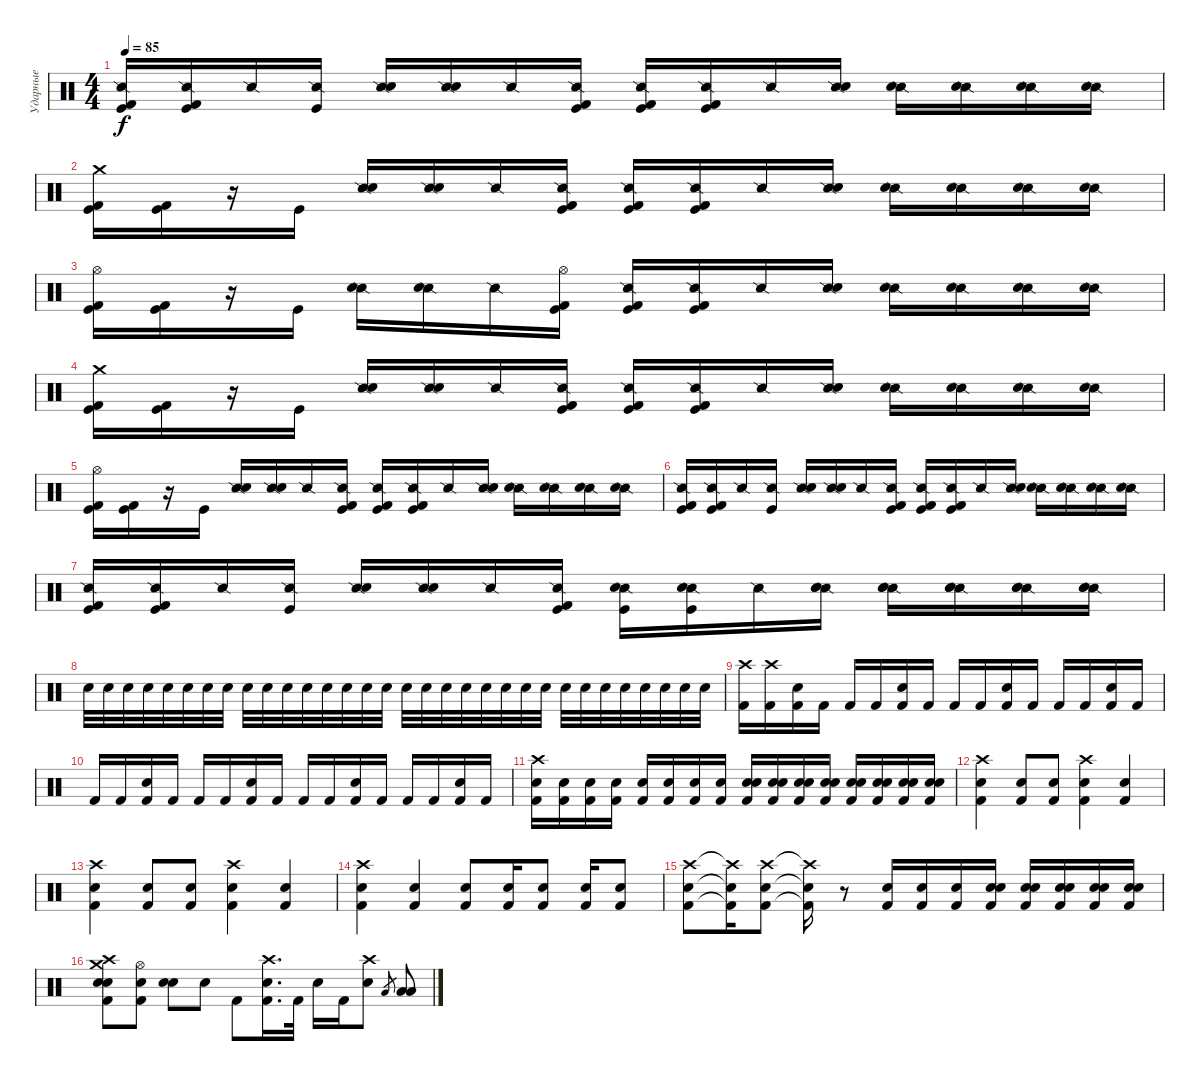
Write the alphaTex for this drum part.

\track ("Ударные" "Ударные") {instrument percussion}
\staff {score}
\articulation defaults
\ts (4 4)
\tempo 85
\clef neutral
\ks c
("Snare (side stick) 2" "Kick (hit)" "Kick (hit) 2").16{dy f} ("Snare (side stick) 2" "Kick (hit)" "Kick (hit) 2").16 "Snare (side stick) 2".16 ("Snare (side stick) 2" "Kick (hit)").16 ("Snare (side stick) 2" "Electric Snare (hit)").16 ("Snare (side stick) 2" "Electric Snare (hit)").16 "Snare (side stick) 2".16 ("Snare (side stick) 2" "Kick (hit) 2" "Kick (hit)").16 ("Snare (side stick) 2" "Kick (hit) 2" "Kick (hit)").16 ("Snare (side stick) 2" "Kick (hit) 2" "Kick (hit)").16 "Snare (side stick) 2".16 ("Snare (side stick) 2" "Electric Snare (hit)").16 ("Snare (side stick) 2" "Electric Snare (hit)").16 ("Snare (side stick) 2" "Electric Snare (hit)").16 ("Snare (side stick) 2" "Electric Snare (hit)").16 ("Snare (side stick) 2" "Electric Snare (hit)").16 |
("Crash medium (hit)" "Kick (hit)" "Kick (hit) 2").16 ("Kick (hit)" "Kick (hit) 2").16 r.16 "Kick (hit)".16 ("Snare (side stick) 2" "Electric Snare (hit)").16 ("Snare (side stick) 2" "Electric Snare (hit)").16 "Snare (side stick) 2".16 ("Snare (side stick) 2" "Kick (hit) 2" "Kick (hit)").16 ("Snare (side stick) 2" "Kick (hit) 2" "Kick (hit)").16 ("Snare (side stick) 2" "Kick (hit) 2" "Kick (hit)").16 "Snare (side stick) 2".16 ("Snare (side stick) 2" "Electric Snare (hit)").16 ("Snare (side stick) 2" "Electric Snare (hit)").16 ("Snare (side stick) 2" "Electric Snare (hit)").16 ("Snare (side stick) 2" "Electric Snare (hit)").16 ("Snare (side stick) 2" "Electric Snare (hit)").16 |
("Hi-Hat (open)" "Kick (hit)" "Kick (hit) 2").16 ("Kick (hit)" "Kick (hit) 2").16 r.16 "Kick (hit)".16 ("Snare (side stick) 2" "Electric Snare (hit)").16 ("Snare (side stick) 2" "Electric Snare (hit)").16 "Snare (side stick) 2".16 ("Hi-Hat (open)" "Kick (hit) 2" "Kick (hit)").16 ("Snare (side stick) 2" "Kick (hit) 2" "Kick (hit)").16 ("Snare (side stick) 2" "Kick (hit) 2" "Kick (hit)").16 "Snare (side stick) 2".16 ("Snare (side stick) 2" "Electric Snare (hit)").16 ("Snare (side stick) 2" "Electric Snare (hit)").16 ("Snare (side stick) 2" "Electric Snare (hit)").16 ("Snare (side stick) 2" "Electric Snare (hit)").16 ("Snare (side stick) 2" "Electric Snare (hit)").16 |
("Crash medium (hit)" "Kick (hit)" "Kick (hit) 2").16 ("Kick (hit)" "Kick (hit) 2").16 r.16 "Kick (hit)".16 ("Snare (side stick) 2" "Electric Snare (hit)").16 ("Snare (side stick) 2" "Electric Snare (hit)").16 "Snare (side stick) 2".16 ("Snare (side stick) 2" "Kick (hit) 2" "Kick (hit)").16 ("Snare (side stick) 2" "Kick (hit) 2" "Kick (hit)").16 ("Snare (side stick) 2" "Kick (hit) 2" "Kick (hit)").16 "Snare (side stick) 2".16 ("Snare (side stick) 2" "Electric Snare (hit)").16 ("Snare (side stick) 2" "Electric Snare (hit)").16 ("Snare (side stick) 2" "Electric Snare (hit)").16 ("Snare (side stick) 2" "Electric Snare (hit)").16 ("Snare (side stick) 2" "Electric Snare (hit)").16 |
("Hi-Hat (open)" "Kick (hit)" "Kick (hit) 2").16 ("Kick (hit)" "Kick (hit) 2").16 r.16 "Kick (hit)".16 ("Snare (side stick) 2" "Electric Snare (hit)").16 ("Snare (side stick) 2" "Electric Snare (hit)").16 "Snare (side stick) 2".16 ("Snare (side stick) 2" "Kick (hit) 2" "Kick (hit)").16 ("Snare (side stick) 2" "Kick (hit) 2" "Kick (hit)").16 ("Snare (side stick) 2" "Kick (hit) 2" "Kick (hit)").16 "Snare (side stick) 2".16 ("Snare (side stick) 2" "Electric Snare (hit)").16 ("Snare (side stick) 2" "Electric Snare (hit)").16 ("Snare (side stick) 2" "Electric Snare (hit)").16 ("Snare (side stick) 2" "Electric Snare (hit)").16 ("Snare (side stick) 2" "Electric Snare (hit)").16 |
("Snare (side stick) 2" "Kick (hit)" "Kick (hit) 2").16 ("Snare (side stick) 2" "Kick (hit)" "Kick (hit) 2").16 "Snare (side stick) 2".16 ("Snare (side stick) 2" "Kick (hit)").16 ("Snare (side stick) 2" "Electric Snare (hit)").16 ("Snare (side stick) 2" "Electric Snare (hit)").16 "Snare (side stick) 2".16 ("Snare (side stick) 2" "Kick (hit) 2" "Kick (hit)").16 ("Snare (side stick) 2" "Kick (hit) 2" "Kick (hit)").16 ("Snare (side stick) 2" "Kick (hit) 2" "Kick (hit)").16 "Snare (side stick) 2".16 ("Snare (side stick) 2" "Electric Snare (hit)").16 ("Snare (side stick) 2" "Electric Snare (hit)").16 ("Snare (side stick) 2" "Electric Snare (hit)").16 ("Snare (side stick) 2" "Electric Snare (hit)").16 ("Snare (side stick) 2" "Electric Snare (hit)").16 |
("Snare (side stick) 2" "Kick (hit)" "Kick (hit) 2").16 ("Snare (side stick) 2" "Kick (hit)" "Kick (hit) 2").16 "Snare (side stick) 2".16 ("Snare (side stick) 2" "Kick (hit)").16 ("Snare (side stick) 2" "Electric Snare (hit)").16 ("Snare (side stick) 2" "Electric Snare (hit)").16 "Snare (side stick) 2".16 ("Snare (side stick) 2" "Kick (hit) 2" "Kick (hit)").16 ("Snare (side stick) 2" "Electric Snare (hit)" "Kick (hit)").16 ("Snare (side stick) 2" "Electric Snare (hit)" "Kick (hit)").16 "Snare (side stick) 2".16 ("Snare (side stick) 2" "Electric Snare (hit)" "Snare (hit) 2").16 ("Snare (side stick) 2" "Electric Snare (hit)" "Snare (hit) 2").16 ("Snare (side stick) 2" "Electric Snare (hit)" "Snare (hit) 2").16 ("Snare (side stick) 2" "Electric Snare (hit)" "Snare (hit) 2").16 ("Snare (side stick) 2" "Electric Snare (hit)" "Snare (hit) 2").16 |
"Electric Snare (hit)".32 "Electric Snare (hit)".32 "Electric Snare (hit)".32 "Electric Snare (hit)".32 "Electric Snare (hit)".32 "Electric Snare (hit)".32 "Electric Snare (hit)".32 "Electric Snare (hit)".32 "Electric Snare (hit)".32 "Electric Snare (hit)".32 "Electric Snare (hit)".32 "Electric Snare (hit)".32 "Electric Snare (hit)".32 "Electric Snare (hit)".32 "Electric Snare (hit)".32 "Electric Snare (hit)".32 "Electric Snare (hit)".32 "Electric Snare (hit)".32 "Electric Snare (hit)".32 "Electric Snare (hit)".32 "Electric Snare (hit)".32 "Electric Snare (hit)".32 "Electric Snare (hit)".32 "Electric Snare (hit)".32 "Electric Snare (hit)".32 "Electric Snare (hit)".32 "Electric Snare (hit)".32 "Electric Snare (hit)".32 "Electric Snare (hit)".32 "Electric Snare (hit)".32 "Electric Snare (hit)".32 "Electric Snare (hit)".32 |
("Kick (hit) 2" "Crash high (hit)").16 ("Kick (hit) 2" "Crash high (hit)").16 ("Kick (hit) 2" "Snare (hit) 2").16 "Kick (hit) 2".16 "Kick (hit) 2".16 "Kick (hit) 2".16 ("Kick (hit) 2" "Snare (hit) 2").16 "Kick (hit) 2".16 "Kick (hit) 2".16 "Kick (hit) 2".16 ("Kick (hit) 2" "Snare (hit) 2").16 "Kick (hit) 2".16 "Kick (hit) 2".16 "Kick (hit) 2".16 ("Kick (hit) 2" "Snare (hit) 2").16 "Kick (hit) 2".16 |
"Kick (hit) 2".16 "Kick (hit) 2".16 ("Kick (hit) 2" "Snare (hit) 2").16 "Kick (hit) 2".16 "Kick (hit) 2".16 "Kick (hit) 2".16 ("Kick (hit) 2" "Snare (hit) 2").16 "Kick (hit) 2".16 "Kick (hit) 2".16 "Kick (hit) 2".16 ("Kick (hit) 2" "Snare (hit) 2").16 "Kick (hit) 2".16 "Kick (hit) 2".16 "Kick (hit) 2".16 ("Kick (hit) 2" "Snare (hit) 2").16 "Kick (hit) 2".16 |
("Kick (hit) 2" "Electric Snare (hit)" "Crash high (hit)").16 ("Kick (hit) 2" "Electric Snare (hit)").16 ("Kick (hit) 2" "Electric Snare (hit)").16 ("Kick (hit) 2" "Electric Snare (hit)").16 ("Kick (hit) 2" "Electric Snare (hit)").16 ("Kick (hit) 2" "Electric Snare (hit)").16 ("Kick (hit) 2" "Electric Snare (hit)").16 ("Kick (hit) 2" "Electric Snare (hit)").16 ("Kick (hit) 2" "Electric Snare (hit)" "Snare (hit) 2").16 ("Kick (hit) 2" "Electric Snare (hit)" "Snare (hit) 2").16 ("Kick (hit) 2" "Electric Snare (hit)" "Snare (hit) 2").16 ("Kick (hit) 2" "Electric Snare (hit)" "Snare (hit) 2").16 ("Kick (hit) 2" "Electric Snare (hit)" "Snare (hit) 2").16 ("Kick (hit) 2" "Electric Snare (hit)" "Snare (hit) 2").16 ("Kick (hit) 2" "Electric Snare (hit)" "Snare (hit) 2").16 ("Kick (hit) 2" "Electric Snare (hit)" "Snare (hit) 2").16 |
("Crash high (hit)" "Snare (hit) 2" "Kick (hit) 2").4 ("Electric Snare (hit)" "Kick (hit) 2").8 ("Electric Snare (hit)" "Kick (hit) 2").8 ("Crash high (hit)" "Snare (hit) 2" "Kick (hit) 2").4 ("Electric Snare (hit)" "Kick (hit) 2").4 |
("Crash high (hit)" "Snare (hit) 2" "Kick (hit) 2").4 ("Electric Snare (hit)" "Kick (hit) 2").8 ("Electric Snare (hit)" "Kick (hit) 2").8 ("Crash high (hit)" "Snare (hit) 2" "Kick (hit) 2").4 ("Electric Snare (hit)" "Kick (hit) 2").4 |
("Crash high (hit)" "Snare (hit) 2" "Kick (hit) 2").4 ("Electric Snare (hit)" "Kick (hit) 2").4 ("Electric Snare (hit)" "Kick (hit) 2").8 ("Kick (hit) 2" "Electric Snare (hit)").16 ("Electric Snare (hit)" "Kick (hit) 2").8 ("Electric Snare (hit)" "Kick (hit) 2").16 ("Electric Snare (hit)" "Kick (hit) 2").8 |
("Crash high (hit)" "Snare (hit) 2" "Kick (hit) 2").8 ("Crash high (hit)"{t} "Snare (hit) 2"{t} "Kick (hit) 2"{t}).16 ("Crash high (hit)" "Snare (hit) 2" "Kick (hit) 2").8 ("Crash high (hit)"{t} "Snare (hit) 2"{t} "Kick (hit) 2"{t}).16 r.8 ("Kick (hit) 2" "Electric Snare (hit)").16 ("Kick (hit) 2" "Electric Snare (hit)").16 ("Kick (hit) 2" "Electric Snare (hit)").16 ("Kick (hit) 2" "Electric Snare (hit)" "Snare (hit) 2").16 ("Kick (hit) 2" "Electric Snare (hit)" "Snare (hit) 2").16 ("Kick (hit) 2" "Electric Snare (hit)" "Snare (hit) 2").16 ("Kick (hit) 2" "Electric Snare (hit)" "Snare (hit) 2").16 ("Kick (hit) 2" "Electric Snare (hit)" "Snare (hit) 2").16 |
("Crash high (hit)" "Electric Snare (hit)" "Crash medium (hit)" "Snare (hit) 2" "Kick (hit) 2").8 ("Hi-Hat (open)" "Electric Snare (hit)" "Kick (hit) 2").8 ("Electric Snare (hit)" "Snare (hit) 2").8 "Electric Snare (hit)".8 "Kick (hit) 2".8 ("Crash high (hit)" "Snare (hit) 2" "Kick (hit) 2").16{d} "Kick (hit) 2".32 "Snare (hit) 2".16 "Kick (hit) 2".16 ("Crash high (hit)" "Electric Snare (hit)").8 "Low Tom (hit)".8{gr} ("Low Tom (hit)" "Low Tom (hit)").8
